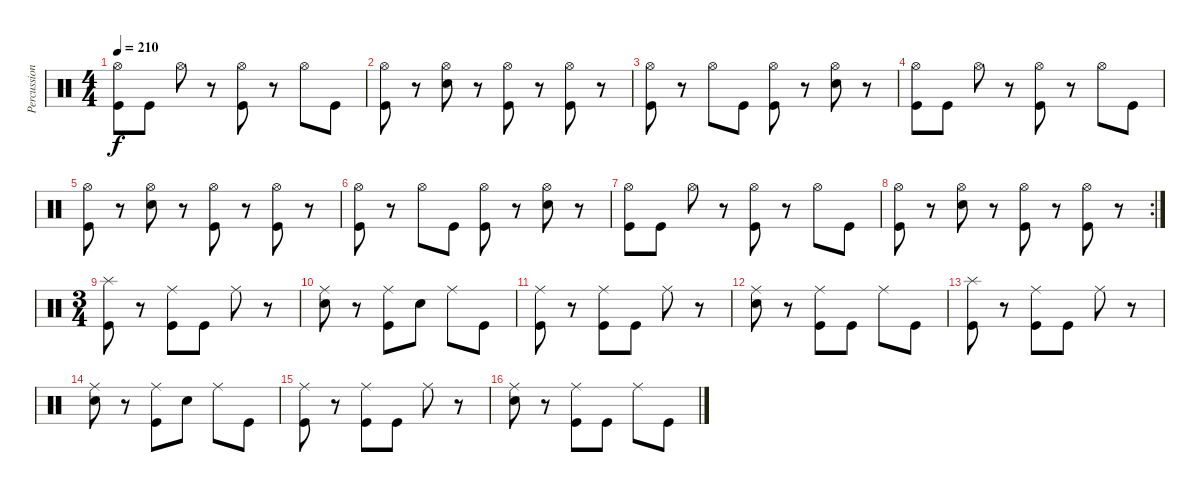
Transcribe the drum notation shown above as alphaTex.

\track ("Percussion" "Percussion") {instrument percussion}
\staff {score}
\articulation defaults
\ts (4 4)
\tempo 210
\clef neutral
\ks c
("Hi-Hat (open)" "Kick (hit)").8{dy f} "Kick (hit)".8 "Hi-Hat (open)".8 r.8 ("Hi-Hat (open)" "Kick (hit)").8 r.8 "Hi-Hat (open)".8 "Kick (hit)".8 |
("Hi-Hat (open)" "Kick (hit)").8 r.8 ("Hi-Hat (open)" "Electric Snare (hit)").8 r.8 ("Hi-Hat (open)" "Kick (hit)").8 r.8 ("Hi-Hat (open)" "Kick (hit)").8 r.8 |
("Hi-Hat (open)" "Kick (hit)").8 r.8 "Hi-Hat (open)".8 "Kick (hit)".8 ("Hi-Hat (open)" "Kick (hit)").8 r.8 ("Hi-Hat (open)" "Electric Snare (hit)").8 r.8 |
("Hi-Hat (open)" "Kick (hit)").8 "Kick (hit)".8 "Hi-Hat (open)".8 r.8 ("Hi-Hat (open)" "Kick (hit)").8 r.8 "Hi-Hat (open)".8 "Kick (hit)".8 |
("Hi-Hat (open)" "Kick (hit)").8 r.8 ("Hi-Hat (open)" "Electric Snare (hit)").8 r.8 ("Hi-Hat (open)" "Kick (hit)").8 r.8 ("Hi-Hat (open)" "Kick (hit)").8 r.8 |
("Hi-Hat (open)" "Kick (hit)").8 r.8 "Hi-Hat (open)".8 "Kick (hit)".8 ("Hi-Hat (open)" "Kick (hit)").8 r.8 ("Hi-Hat (open)" "Electric Snare (hit)").8 r.8 |
("Hi-Hat (open)" "Kick (hit)").8 "Kick (hit)".8 "Hi-Hat (open)".8 r.8 ("Hi-Hat (open)" "Kick (hit)").8 r.8 "Hi-Hat (open)".8 "Kick (hit)".8 |
\rc 2
("Hi-Hat (open)" "Kick (hit)").8 r.8 ("Hi-Hat (open)" "Electric Snare (hit)").8 r.8 ("Hi-Hat (open)" "Kick (hit)").8 r.8 ("Hi-Hat (open)" "Kick (hit)").8 r.8 |
\ts (3 4)
("Splash (hit)" "Kick (hit)").8 r.8 ("Ride (middle)" "Kick (hit)").8 "Kick (hit)".8 "Ride (middle)".8 r.8 |
("Ride (middle)" "Electric Snare (hit)").8 r.8 ("Ride (middle)" "Kick (hit)").8 "Electric Snare (hit)".8 "Ride (middle)".8 "Kick (hit)".8 |
("Ride (middle)" "Kick (hit)").8 r.8 ("Ride (middle)" "Kick (hit)").8 "Kick (hit)".8 "Ride (middle)".8 r.8 |
("Ride (middle)" "Electric Snare (hit)").8 r.8 ("Ride (middle)" "Kick (hit)").8 "Kick (hit)".8 "Ride (middle)".8 "Kick (hit)".8 |
("Splash (hit)" "Kick (hit)").8 r.8 ("Ride (middle)" "Kick (hit)").8 "Kick (hit)".8 "Ride (middle)".8 r.8 |
("Ride (middle)" "Electric Snare (hit)").8 r.8 ("Ride (middle)" "Kick (hit)").8 "Electric Snare (hit)".8 "Ride (middle)".8 "Kick (hit)".8 |
("Ride (middle)" "Kick (hit)").8 r.8 ("Ride (middle)" "Kick (hit)").8 "Kick (hit)".8 "Ride (middle)".8 r.8 |
("Ride (middle)" "Electric Snare (hit)").8 r.8 ("Ride (middle)" "Kick (hit)").8 "Kick (hit)".8 "Ride (middle)".8 "Kick (hit)".8
